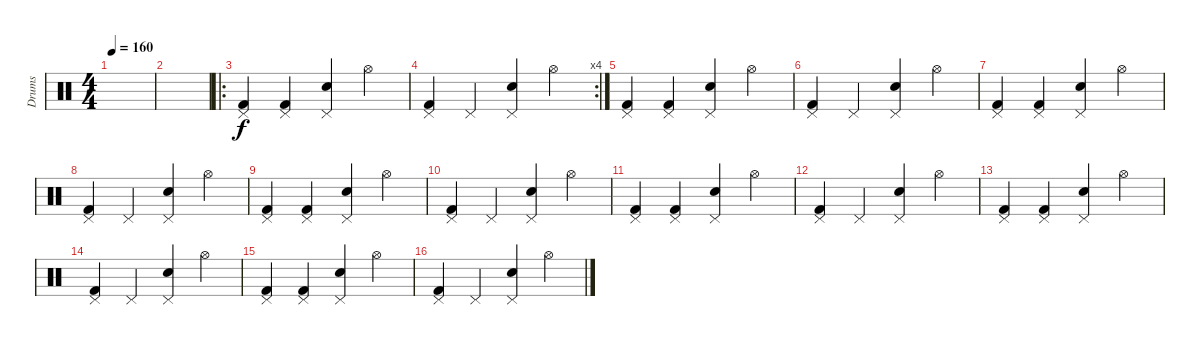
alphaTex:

\track ("Drums" "Drums") {instrument percussion}
\staff {score}
\articulation defaults
\ts (4 4)
\tempo 160
\clef neutral
\ks c
|
|
\ro
("Pedal Hi-Hat (hit)" "Kick (hit) 2").4 ("Pedal Hi-Hat (hit)" "Kick (hit) 2").4 ("Pedal Hi-Hat (hit)" "Electric Snare (hit)").4 "Hi-Hat (open)".4 |
\rc 4
("Pedal Hi-Hat (hit)" "Kick (hit) 2").4 "Pedal Hi-Hat (hit)".4 ("Pedal Hi-Hat (hit)" "Electric Snare (hit)").4 "Hi-Hat (open)".4 |
("Pedal Hi-Hat (hit)" "Kick (hit) 2").4 ("Pedal Hi-Hat (hit)" "Kick (hit) 2").4 ("Pedal Hi-Hat (hit)" "Electric Snare (hit)").4 "Hi-Hat (open)".4 |
("Pedal Hi-Hat (hit)" "Kick (hit) 2").4 "Pedal Hi-Hat (hit)".4 ("Pedal Hi-Hat (hit)" "Electric Snare (hit)").4 "Hi-Hat (open)".4 |
("Pedal Hi-Hat (hit)" "Kick (hit) 2").4 ("Pedal Hi-Hat (hit)" "Kick (hit) 2").4 ("Pedal Hi-Hat (hit)" "Electric Snare (hit)").4 "Hi-Hat (open)".4 |
("Pedal Hi-Hat (hit)" "Kick (hit) 2").4 "Pedal Hi-Hat (hit)".4 ("Pedal Hi-Hat (hit)" "Electric Snare (hit)").4 "Hi-Hat (open)".4 |
("Pedal Hi-Hat (hit)" "Kick (hit) 2").4 ("Pedal Hi-Hat (hit)" "Kick (hit) 2").4 ("Pedal Hi-Hat (hit)" "Electric Snare (hit)").4 "Hi-Hat (open)".4 |
("Pedal Hi-Hat (hit)" "Kick (hit) 2").4 "Pedal Hi-Hat (hit)".4 ("Pedal Hi-Hat (hit)" "Electric Snare (hit)").4 "Hi-Hat (open)".4 |
("Pedal Hi-Hat (hit)" "Kick (hit) 2").4 ("Pedal Hi-Hat (hit)" "Kick (hit) 2").4 ("Pedal Hi-Hat (hit)" "Electric Snare (hit)").4 "Hi-Hat (open)".4 |
("Pedal Hi-Hat (hit)" "Kick (hit) 2").4 "Pedal Hi-Hat (hit)".4 ("Pedal Hi-Hat (hit)" "Electric Snare (hit)").4 "Hi-Hat (open)".4 |
("Pedal Hi-Hat (hit)" "Kick (hit) 2").4 ("Pedal Hi-Hat (hit)" "Kick (hit) 2").4 ("Pedal Hi-Hat (hit)" "Electric Snare (hit)").4 "Hi-Hat (open)".4 |
("Pedal Hi-Hat (hit)" "Kick (hit) 2").4 "Pedal Hi-Hat (hit)".4 ("Pedal Hi-Hat (hit)" "Electric Snare (hit)").4 "Hi-Hat (open)".4 |
("Pedal Hi-Hat (hit)" "Kick (hit) 2").4 ("Pedal Hi-Hat (hit)" "Kick (hit) 2").4 ("Pedal Hi-Hat (hit)" "Electric Snare (hit)").4 "Hi-Hat (open)".4 |
("Pedal Hi-Hat (hit)" "Kick (hit) 2").4 "Pedal Hi-Hat (hit)".4 ("Pedal Hi-Hat (hit)" "Electric Snare (hit)").4 "Hi-Hat (open)".4
